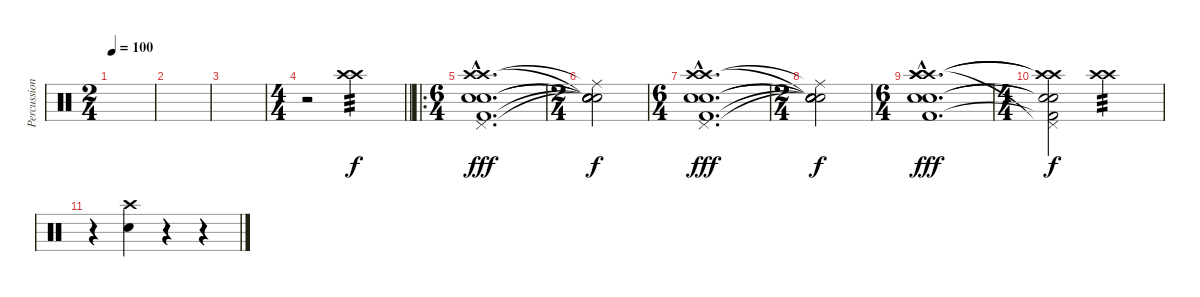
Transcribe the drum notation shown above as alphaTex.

\track ("Percussions" "Percussion") {instrument percussion}
\staff {score}
\articulation defaults
\ts (2 4)
\tempo 100
\clef neutral
\ks c
|
|
|
\ts (4 4)
\barLineRight lightlight
r.2{volume 0} ("Crash high (hit)" "Crash high (hit)").2{tp 3 volume 16} |
\ro
\ts (6 4)
\section ("" "")
("Crash high (hit)"{hac} "Crash high (hit)" "Snare (hit) 2"{hac} "Snare (hit) 2"{hac} "Pedal Hi-Hat (hit)"{hac} "Kick (hit) 2"{hac}).1{d dy fff} |
\ts (2 4)
("Snare (hit)"{t} "Ride (middle)"{t} "Snare (hit)"{t} "Snare (hit)"{t} "Snare (hit)"{t} "Snare (hit)"{t}).2{dy f} |
\ts (6 4)
("Crash high (hit)"{hac} "Crash high (hit)"{hac} "Snare (hit) 2"{hac} "Snare (hit) 2"{hac} "Pedal Hi-Hat (hit)"{hac} "Kick (hit) 2"{hac}).1{d dy fff} |
\ts (2 4)
("Snare (hit)"{t} "Ride (middle)"{t} "Snare (hit)"{t} "Snare (hit)"{t} "Snare (hit)"{t} "Snare (hit)"{t}).2{dy f} |
\ts (6 4)
("Crash high (hit)"{hac} "Crash high (hit)"{hac} "Snare (hit) 2"{hac} "Snare (hit) 2"{hac} "Crash high (hit)"{hac} "Kick (hit) 2"{hac}).1{d dy fff} |
\ts (4 4)
("Crash high (hit)"{t} "Crash high (hit)"{t} "Snare (hit) 2"{t} "Snare (hit) 2"{t} "Pedal Hi-Hat (hit)"{t} "Kick (hit) 2"{t}).2{dy f volume 0} ("Crash high (hit)" "Crash high (hit)").2{tp 3 volume 12} |
r.4 ("Crash high (hit)" "Snare (hit) 2").4 r.4{volume 0} r.4
